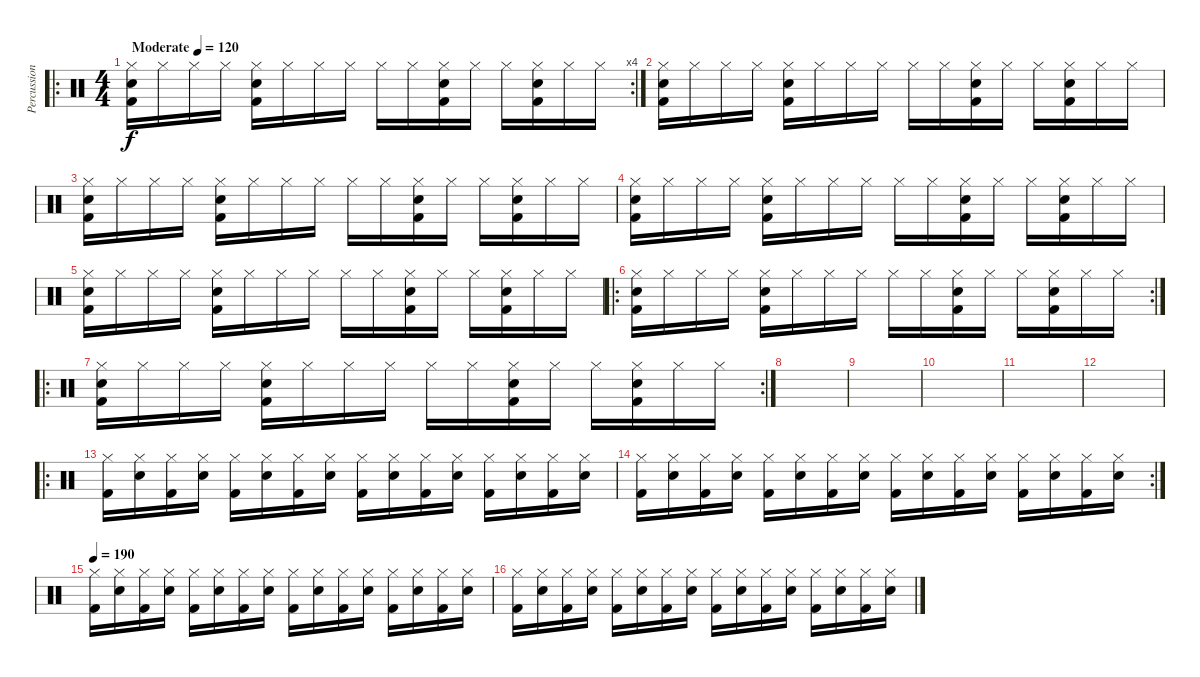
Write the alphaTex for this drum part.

\track ("Percussion" "Percussion") {instrument percussion}
\staff {score}
\articulation defaults
\ro
\rc 4
\ts (4 4)
\tempo (120 "Moderate")
\clef neutral
\ks c
("Hi-Hat (closed)" "Snare (hit) 2" "Kick (hit) 2").16{dy f} "Hi-Hat (closed)".16 "Hi-Hat (closed)".16 "Hi-Hat (closed)".16 ("Hi-Hat (closed)" "Snare (hit) 2" "Kick (hit) 2").16 "Hi-Hat (closed)".16 "Hi-Hat (closed)".16 "Hi-Hat (closed)".16 "Hi-Hat (closed)".16 "Hi-Hat (closed)".16 ("Hi-Hat (closed)" "Snare (hit) 2" "Kick (hit) 2").16 "Hi-Hat (closed)".16 "Hi-Hat (closed)".16 ("Hi-Hat (closed)" "Snare (hit) 2" "Kick (hit) 2").16 "Hi-Hat (closed)".16 "Hi-Hat (closed)".16 |
("Hi-Hat (closed)" "Snare (hit) 2" "Kick (hit) 2").16 "Hi-Hat (closed)".16 "Hi-Hat (closed)".16 "Hi-Hat (closed)".16 ("Hi-Hat (closed)" "Snare (hit) 2" "Kick (hit) 2").16 "Hi-Hat (closed)".16 "Hi-Hat (closed)".16 "Hi-Hat (closed)".16 "Hi-Hat (closed)".16 "Hi-Hat (closed)".16 ("Hi-Hat (closed)" "Snare (hit) 2" "Kick (hit) 2").16 "Hi-Hat (closed)".16 "Hi-Hat (closed)".16 ("Hi-Hat (closed)" "Snare (hit) 2" "Kick (hit) 2").16 "Hi-Hat (closed)".16 "Hi-Hat (closed)".16 |
("Hi-Hat (closed)" "Snare (hit) 2" "Kick (hit) 2").16 "Hi-Hat (closed)".16 "Hi-Hat (closed)".16 "Hi-Hat (closed)".16 ("Hi-Hat (closed)" "Snare (hit) 2" "Kick (hit) 2").16 "Hi-Hat (closed)".16 "Hi-Hat (closed)".16 "Hi-Hat (closed)".16 "Hi-Hat (closed)".16 "Hi-Hat (closed)".16 ("Hi-Hat (closed)" "Snare (hit) 2" "Kick (hit) 2").16 "Hi-Hat (closed)".16 "Hi-Hat (closed)".16 ("Hi-Hat (closed)" "Snare (hit) 2" "Kick (hit) 2").16 "Hi-Hat (closed)".16 "Hi-Hat (closed)".16 |
("Hi-Hat (closed)" "Snare (hit) 2" "Kick (hit) 2").16 "Hi-Hat (closed)".16 "Hi-Hat (closed)".16 "Hi-Hat (closed)".16 ("Hi-Hat (closed)" "Snare (hit) 2" "Kick (hit) 2").16 "Hi-Hat (closed)".16 "Hi-Hat (closed)".16 "Hi-Hat (closed)".16 "Hi-Hat (closed)".16 "Hi-Hat (closed)".16 ("Hi-Hat (closed)" "Snare (hit) 2" "Kick (hit) 2").16 "Hi-Hat (closed)".16 "Hi-Hat (closed)".16 ("Hi-Hat (closed)" "Snare (hit) 2" "Kick (hit) 2").16 "Hi-Hat (closed)".16 "Hi-Hat (closed)".16 |
("Hi-Hat (closed)" "Snare (hit) 2" "Kick (hit) 2").16 "Hi-Hat (closed)".16 "Hi-Hat (closed)".16 "Hi-Hat (closed)".16 ("Hi-Hat (closed)" "Snare (hit) 2" "Kick (hit) 2").16 "Hi-Hat (closed)".16 "Hi-Hat (closed)".16 "Hi-Hat (closed)".16 "Hi-Hat (closed)".16 "Hi-Hat (closed)".16 ("Hi-Hat (closed)" "Snare (hit) 2" "Kick (hit) 2").16 "Hi-Hat (closed)".16 "Hi-Hat (closed)".16 ("Hi-Hat (closed)" "Snare (hit) 2" "Kick (hit) 2").16 "Hi-Hat (closed)".16 "Hi-Hat (closed)".16 |
\ro
\rc 2
("Hi-Hat (closed)" "Snare (hit) 2" "Kick (hit) 2").16 "Hi-Hat (closed)".16 "Hi-Hat (closed)".16 "Hi-Hat (closed)".16 ("Hi-Hat (closed)" "Snare (hit) 2" "Kick (hit) 2").16 "Hi-Hat (closed)".16 "Hi-Hat (closed)".16 "Hi-Hat (closed)".16 "Hi-Hat (closed)".16 "Hi-Hat (closed)".16 ("Hi-Hat (closed)" "Snare (hit) 2" "Kick (hit) 2").16 "Hi-Hat (closed)".16 "Hi-Hat (closed)".16 ("Hi-Hat (closed)" "Snare (hit) 2" "Kick (hit) 2").16 "Hi-Hat (closed)".16 "Hi-Hat (closed)".16 |
\ro
\rc 2
("Hi-Hat (closed)" "Snare (hit) 2" "Kick (hit) 2").16 "Hi-Hat (closed)".16 "Hi-Hat (closed)".16 "Hi-Hat (closed)".16 ("Hi-Hat (closed)" "Snare (hit) 2" "Kick (hit) 2").16 "Hi-Hat (closed)".16 "Hi-Hat (closed)".16 "Hi-Hat (closed)".16 "Hi-Hat (closed)".16 "Hi-Hat (closed)".16 ("Hi-Hat (closed)" "Snare (hit) 2" "Kick (hit) 2").16 "Hi-Hat (closed)".16 "Hi-Hat (closed)".16 ("Hi-Hat (closed)" "Snare (hit) 2" "Kick (hit) 2").16 "Hi-Hat (closed)".16 "Hi-Hat (closed)".16 |
|
|
|
|
|
\ro
("Hi-Hat (closed)" "Kick (hit) 2").16 ("Hi-Hat (closed)" "Snare (hit) 2").16 ("Hi-Hat (closed)" "Kick (hit) 2").16 ("Hi-Hat (closed)" "Snare (hit) 2").16 ("Hi-Hat (closed)" "Kick (hit) 2").16 ("Hi-Hat (closed)" "Snare (hit) 2").16 ("Hi-Hat (closed)" "Kick (hit) 2").16 ("Hi-Hat (closed)" "Snare (hit) 2").16 ("Hi-Hat (closed)" "Kick (hit) 2").16 ("Hi-Hat (closed)" "Snare (hit) 2").16 ("Hi-Hat (closed)" "Kick (hit) 2").16 ("Hi-Hat (closed)" "Snare (hit) 2").16 ("Hi-Hat (closed)" "Kick (hit) 2").16 ("Hi-Hat (closed)" "Snare (hit) 2").16 ("Hi-Hat (closed)" "Kick (hit) 2").16 ("Hi-Hat (closed)" "Snare (hit) 2").16 |
\rc 2
("Hi-Hat (closed)" "Kick (hit) 2").16 ("Hi-Hat (closed)" "Snare (hit) 2").16 ("Hi-Hat (closed)" "Kick (hit) 2").16 ("Hi-Hat (closed)" "Snare (hit) 2").16 ("Hi-Hat (closed)" "Kick (hit) 2").16 ("Hi-Hat (closed)" "Snare (hit) 2").16 ("Hi-Hat (closed)" "Kick (hit) 2").16 ("Hi-Hat (closed)" "Snare (hit) 2").16 ("Hi-Hat (closed)" "Kick (hit) 2").16 ("Hi-Hat (closed)" "Snare (hit) 2").16 ("Hi-Hat (closed)" "Kick (hit) 2").16 ("Hi-Hat (closed)" "Snare (hit) 2").16 ("Hi-Hat (closed)" "Kick (hit) 2").16 ("Hi-Hat (closed)" "Snare (hit) 2").16 ("Hi-Hat (closed)" "Kick (hit) 2").16 ("Hi-Hat (closed)" "Snare (hit) 2").16 |
\tempo 190
("Hi-Hat (closed)" "Kick (hit) 2").16 ("Hi-Hat (closed)" "Snare (hit) 2").16 ("Hi-Hat (closed)" "Kick (hit) 2").16 ("Hi-Hat (closed)" "Snare (hit) 2").16 ("Hi-Hat (closed)" "Kick (hit) 2").16 ("Hi-Hat (closed)" "Snare (hit) 2").16 ("Hi-Hat (closed)" "Kick (hit) 2").16 ("Hi-Hat (closed)" "Snare (hit) 2").16 ("Hi-Hat (closed)" "Kick (hit) 2").16 ("Hi-Hat (closed)" "Snare (hit) 2").16 ("Hi-Hat (closed)" "Kick (hit) 2").16 ("Hi-Hat (closed)" "Snare (hit) 2").16 ("Hi-Hat (closed)" "Kick (hit) 2").16 ("Hi-Hat (closed)" "Snare (hit) 2").16 ("Hi-Hat (closed)" "Kick (hit) 2").16 ("Hi-Hat (closed)" "Snare (hit) 2").16 |
("Hi-Hat (closed)" "Kick (hit) 2").16 ("Hi-Hat (closed)" "Snare (hit) 2").16 ("Hi-Hat (closed)" "Kick (hit) 2").16 ("Hi-Hat (closed)" "Snare (hit) 2").16 ("Hi-Hat (closed)" "Kick (hit) 2").16 ("Hi-Hat (closed)" "Snare (hit) 2").16 ("Hi-Hat (closed)" "Kick (hit) 2").16 ("Hi-Hat (closed)" "Snare (hit) 2").16 ("Hi-Hat (closed)" "Kick (hit) 2").16 ("Hi-Hat (closed)" "Snare (hit) 2").16 ("Hi-Hat (closed)" "Kick (hit) 2").16 ("Hi-Hat (closed)" "Snare (hit) 2").16 ("Hi-Hat (closed)" "Kick (hit) 2").16 ("Hi-Hat (closed)" "Snare (hit) 2").16 ("Hi-Hat (closed)" "Kick (hit) 2").16 ("Hi-Hat (closed)" "Snare (hit) 2").16
